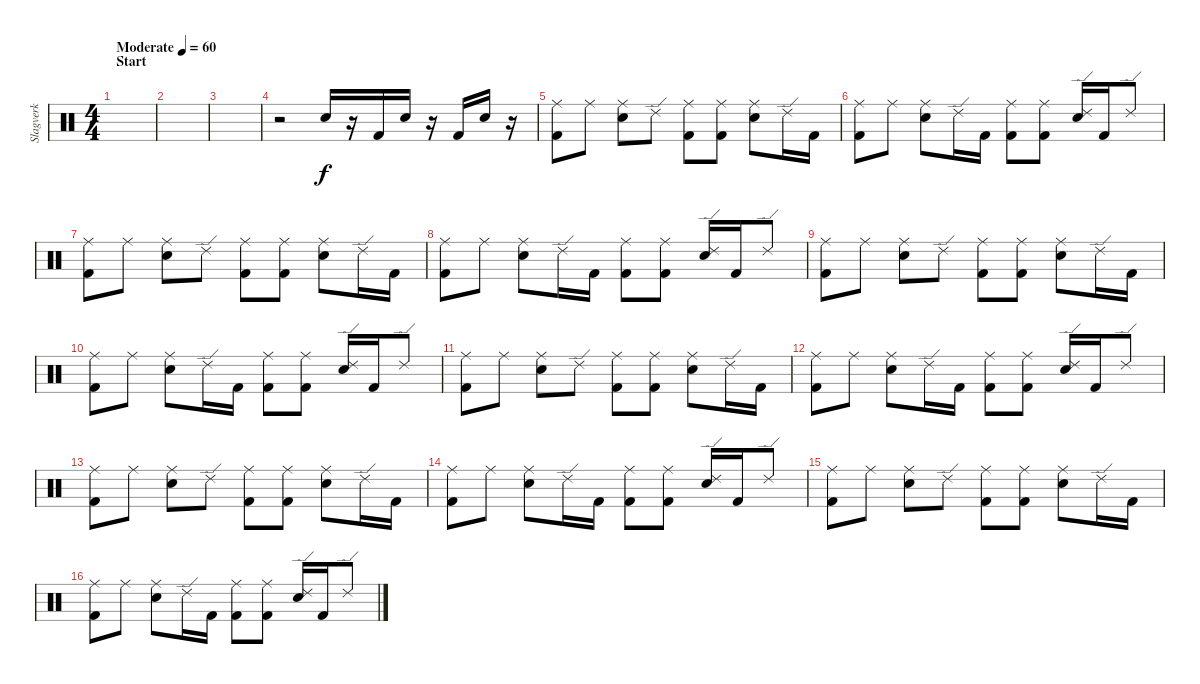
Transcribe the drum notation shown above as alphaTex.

\track ("Slagverk" "Slagverk") {instrument percussion}
\staff {score}
\articulation defaults
\ts (4 4)
\section ("" "Start")
\tempo (60 "Moderate")
\clef neutral
\ks c
|
|
|
r.2 "Snare (hit) 2".16 r.16 "Kick (hit) 2".16 "Snare (hit) 2".16 r.16 "Kick (hit) 2".16 "Snare (hit) 2".16 r.16 |
("Ride (middle)" "Kick (hit) 2").8 "Ride (middle)".8 ("Ride (middle)" "Snare (hit) 2").8 "Ride (edge) 2".8 ("Ride (middle)" "Kick (hit) 2").8 ("Ride (middle)" "Kick (hit) 2").8 ("Ride (middle)" "Snare (hit) 2").8 "Ride (edge) 2".16 "Kick (hit) 2".16 |
("Ride (middle)" "Kick (hit) 2").8 "Ride (middle)".8 ("Ride (middle)" "Snare (hit) 2").8 "Ride (edge) 2".16 "Kick (hit) 2".16 ("Ride (middle)" "Kick (hit) 2").8 ("Ride (middle)" "Kick (hit) 2").8 ("Ride (edge) 2" "Snare (hit) 2").16 "Kick (hit) 2".16 "Ride (edge) 2".8 |
("Ride (middle)" "Kick (hit) 2").8 "Ride (middle)".8 ("Ride (middle)" "Snare (hit) 2").8 "Ride (edge) 2".8 ("Ride (middle)" "Kick (hit) 2").8 ("Ride (middle)" "Kick (hit) 2").8 ("Ride (middle)" "Snare (hit) 2").8 "Ride (edge) 2".16 "Kick (hit) 2".16 |
("Ride (middle)" "Kick (hit) 2").8 "Ride (middle)".8 ("Ride (middle)" "Snare (hit) 2").8 "Ride (edge) 2".16 "Kick (hit) 2".16 ("Ride (middle)" "Kick (hit) 2").8 ("Ride (middle)" "Kick (hit) 2").8 ("Ride (edge) 2" "Snare (hit) 2").16 "Kick (hit) 2".16 "Ride (edge) 2".8 |
("Ride (middle)" "Kick (hit) 2").8 "Ride (middle)".8 ("Ride (middle)" "Snare (hit) 2").8 "Ride (edge) 2".8 ("Ride (middle)" "Kick (hit) 2").8 ("Ride (middle)" "Kick (hit) 2").8 ("Ride (middle)" "Snare (hit) 2").8 "Ride (edge) 2".16 "Kick (hit) 2".16 |
("Ride (middle)" "Kick (hit) 2").8 "Ride (middle)".8 ("Ride (middle)" "Snare (hit) 2").8 "Ride (edge) 2".16 "Kick (hit) 2".16 ("Ride (middle)" "Kick (hit) 2").8 ("Ride (middle)" "Kick (hit) 2").8 ("Ride (edge) 2" "Snare (hit) 2").16 "Kick (hit) 2".16 "Ride (edge) 2".8 |
("Ride (middle)" "Kick (hit) 2").8 "Ride (middle)".8 ("Ride (middle)" "Snare (hit) 2").8 "Ride (edge) 2".8 ("Ride (middle)" "Kick (hit) 2").8 ("Ride (middle)" "Kick (hit) 2").8 ("Ride (middle)" "Snare (hit) 2").8 "Ride (edge) 2".16 "Kick (hit) 2".16 |
("Ride (middle)" "Kick (hit) 2").8 "Ride (middle)".8 ("Ride (middle)" "Snare (hit) 2").8 "Ride (edge) 2".16 "Kick (hit) 2".16 ("Ride (middle)" "Kick (hit) 2").8 ("Ride (middle)" "Kick (hit) 2").8 ("Ride (edge) 2" "Snare (hit) 2").16 "Kick (hit) 2".16 "Ride (edge) 2".8 |
("Ride (middle)" "Kick (hit) 2").8 "Ride (middle)".8 ("Ride (middle)" "Snare (hit) 2").8 "Ride (edge) 2".8 ("Ride (middle)" "Kick (hit) 2").8 ("Ride (middle)" "Kick (hit) 2").8 ("Ride (middle)" "Snare (hit) 2").8 "Ride (edge) 2".16 "Kick (hit) 2".16 |
("Ride (middle)" "Kick (hit) 2").8 "Ride (middle)".8 ("Ride (middle)" "Snare (hit) 2").8 "Ride (edge) 2".16 "Kick (hit) 2".16 ("Ride (middle)" "Kick (hit) 2").8 ("Ride (middle)" "Kick (hit) 2").8 ("Ride (edge) 2" "Snare (hit) 2").16 "Kick (hit) 2".16 "Ride (edge) 2".8 |
("Ride (middle)" "Kick (hit) 2").8 "Ride (middle)".8 ("Ride (middle)" "Snare (hit) 2").8 "Ride (edge) 2".8 ("Ride (middle)" "Kick (hit) 2").8 ("Ride (middle)" "Kick (hit) 2").8 ("Ride (middle)" "Snare (hit) 2").8 "Ride (edge) 2".16 "Kick (hit) 2".16 |
("Ride (middle)" "Kick (hit) 2").8 "Ride (middle)".8 ("Ride (middle)" "Snare (hit) 2").8 "Ride (edge) 2".16 "Kick (hit) 2".16 ("Ride (middle)" "Kick (hit) 2").8 ("Ride (middle)" "Kick (hit) 2").8 ("Ride (edge) 2" "Snare (hit) 2").16 "Kick (hit) 2".16 "Ride (edge) 2".8
